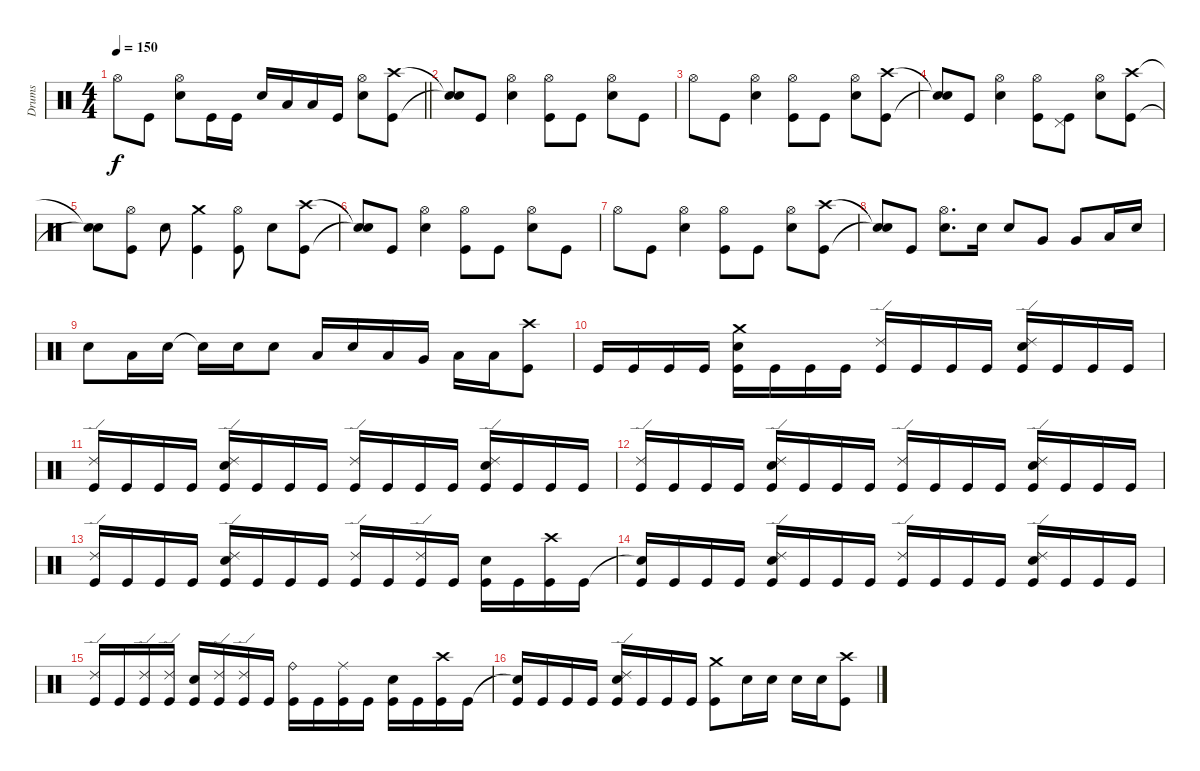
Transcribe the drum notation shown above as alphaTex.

\track ("Drums" "Drums") {instrument percussion}
\staff {score}
\articulation defaults
\ts (4 4)
\tempo 150
\clef neutral
\barLineRight lightlight
\ks c "Hi-Hat (open)".8{dy f} "Kick (hit)".8
("Hi-Hat (open)" "Electric Snare (hit)").8 "Kick (hit)".16 "Kick (hit)".16 "Electric Snare (hit)".16 "Low Tom (hit)".16 "Low Floor Tom (hit)".16 "Kick (hit)".16 ("Hi-Hat (open)" "Electric Snare (hit)").8 ("Crash high (hit)" "Kick (hit)").8 |
("Snare (hit)"{t} "Snare (hit)"{t}).8 "Kick (hit)".8 ("Hi-Hat (open)" "Electric Snare (hit)").4 ("Hi-Hat (open)" "Kick (hit)").8 "Kick (hit)".8 ("Hi-Hat (open)" "Electric Snare (hit)").8 "Kick (hit)".8 |
"Hi-Hat (open)".8 "Kick (hit)".8 ("Hi-Hat (open)" "Electric Snare (hit)").4 ("Hi-Hat (open)" "Kick (hit)").8 "Kick (hit)".8 ("Hi-Hat (open)" "Electric Snare (hit)").8 ("Crash high (hit)" "Kick (hit)").8 |
("Snare (hit)"{t} "Snare (hit)"{t}).8 "Kick (hit)".8 ("Hi-Hat (open)" "Electric Snare (hit)").4 ("Hi-Hat (open)" "Kick (hit)").8 ("Pedal Hi-Hat (hit)" "Kick (hit)").8 ("Hi-Hat (open)" "Electric Snare (hit)").8 ("Crash high (hit)" "Kick (hit)").8 |
("Snare (hit)"{t} "Snare (hit)"{t}).8 ("Hi-Hat (open)" "Kick (hit)").8 "Electric Snare (hit)".8 ("Crash medium (hit)" "Kick (hit)").4 ("Hi-Hat (open)" "Kick (hit)").8 "Electric Snare (hit)".8 ("Crash high (hit)" "Kick (hit)").8 |
("Snare (hit)"{t} "Snare (hit)"{t}).8 "Kick (hit)".8 ("Hi-Hat (open)" "Electric Snare (hit)").4 ("Hi-Hat (open)" "Kick (hit)").8 "Kick (hit)".8 ("Hi-Hat (open)" "Electric Snare (hit)").8 "Kick (hit)".8 |
"Hi-Hat (open)".8 "Kick (hit)".8 ("Hi-Hat (open)" "Electric Snare (hit)").4 ("Hi-Hat (open)" "Kick (hit)").8 "Kick (hit)".8 ("Hi-Hat (open)" "Electric Snare (hit)").8 ("Crash high (hit)" "Kick (hit)").8 |
("Snare (hit)"{t} "Snare (hit)"{t}).8 "Kick (hit)".8 ("Hi-Hat (open)" "Electric Snare (hit)").8{d} "Electric Snare (hit)".16 "Electric Snare (hit)".8 "Very Low Tom (hit)".8 "Very Low Tom (hit)".8 "Low Floor Tom (hit)".16 "Electric Snare (hit)".16 |
"Electric Snare (hit)".8 "Low Floor Tom (hit)".16 "Electric Snare (hit)".16 "Electric Snare (hit)"{t}.16 "Electric Snare (hit)".16 "Electric Snare (hit)".8 "Low Floor Tom (hit)".16 "Electric Snare (hit)".16 "Low Tom (hit)".16 "Very Low Tom (hit)".16 "Low Floor Tom (hit)".16 "Low Floor Tom (hit)".16 ("Crash high (hit)" "Kick (hit)").8 |
"Kick (hit)".16 "Kick (hit)".16 "Kick (hit)".16 "Kick (hit)".16 ("Crash medium (hit)" "Electric Snare (hit)" "Kick (hit)").16 "Kick (hit)".16 "Kick (hit)".16 "Kick (hit)".16 ("Ride (edge) 2" "Kick (hit)").16 "Kick (hit)".16 "Kick (hit)".16 "Kick (hit)".16 ("Ride (edge) 2" "Electric Snare (hit)" "Kick (hit)").16 "Kick (hit)".16 "Kick (hit)".16 "Kick (hit)".16 |
("Ride (edge) 2" "Kick (hit)").16 "Kick (hit)".16 "Kick (hit)".16 "Kick (hit)".16 ("Ride (edge) 2" "Electric Snare (hit)" "Kick (hit)").16 "Kick (hit)".16 "Kick (hit)".16 "Kick (hit)".16 ("Ride (edge) 2" "Kick (hit)").16 "Kick (hit)".16 "Kick (hit)".16 "Kick (hit)".16 ("Ride (edge) 2" "Electric Snare (hit)" "Kick (hit)").16 "Kick (hit)".16 "Kick (hit)".16 "Kick (hit)".16 |
("Ride (edge) 2" "Kick (hit)").16 "Kick (hit)".16 "Kick (hit)".16 "Kick (hit)".16 ("Ride (edge) 2" "Electric Snare (hit)" "Kick (hit)").16 "Kick (hit)".16 "Kick (hit)".16 "Kick (hit)".16 ("Ride (edge) 2" "Kick (hit)").16 "Kick (hit)".16 "Kick (hit)".16 "Kick (hit)".16 ("Ride (edge) 2" "Electric Snare (hit)" "Kick (hit)").16 "Kick (hit)".16 "Kick (hit)".16 "Kick (hit)".16 |
("Ride (edge) 2" "Kick (hit)").16 "Kick (hit)".16 "Kick (hit)".16 "Kick (hit)".16 ("Ride (edge) 2" "Electric Snare (hit)" "Kick (hit)").16 "Kick (hit)".16 "Kick (hit)".16 "Kick (hit)".16 ("Ride (edge) 2" "Kick (hit)").16 "Kick (hit)".16 ("Ride (edge) 2" "Kick (hit)").16 "Kick (hit)".16 ("Electric Snare (hit)" "Kick (hit)").16 "Kick (hit)".16 ("Crash high (hit)" "Kick (hit)").16 "Kick (hit)".16 |
("Snare (hit)"{t} "Kick (hit)").16 "Kick (hit)".16 "Kick (hit)".16 "Kick (hit)".16 ("Ride (edge) 2" "Electric Snare (hit)" "Kick (hit)").16 "Kick (hit)".16 "Kick (hit)".16 "Kick (hit)".16 ("Ride (edge) 2" "Kick (hit)").16 "Kick (hit)".16 "Kick (hit)".16 "Kick (hit)".16 ("Ride (edge) 2" "Electric Snare (hit)" "Kick (hit)").16 "Kick (hit)".16 "Kick (hit)".16 "Kick (hit)".16 |
("Ride (edge) 2" "Kick (hit)").16 "Kick (hit)".16 ("Ride (edge) 2" "Kick (hit)").16 ("Ride (edge) 2" "Kick (hit)").16 ("Electric Snare (hit)" "Kick (hit)").16 ("Ride (edge) 2" "Kick (hit)").16 ("Ride (edge) 2" "Kick (hit)").16 "Kick (hit)".16 ("Ride (bell)" "Kick (hit)").16 "Kick (hit)".16 ("Ride (middle)" "Kick (hit)").16 "Kick (hit)".16 ("Electric Snare (hit)" "Kick (hit)").16 "Kick (hit)".16 ("Crash high (hit)" "Kick (hit)").16 "Kick (hit)".16 |
("Snare (hit)"{t} "Kick (hit)").16 "Kick (hit)".16 "Kick (hit)".16 "Kick (hit)".16 ("Ride (edge) 2" "Electric Snare (hit)" "Kick (hit)").16 "Kick (hit)".16 "Kick (hit)".16 "Kick (hit)".16 ("Crash medium (hit)" "Kick (hit)").8 "Electric Snare (hit)".16 "Electric Snare (hit)".16 "Electric Snare (hit)".16 "Electric Snare (hit)".16 ("Crash high (hit)" "Kick (hit)").8
